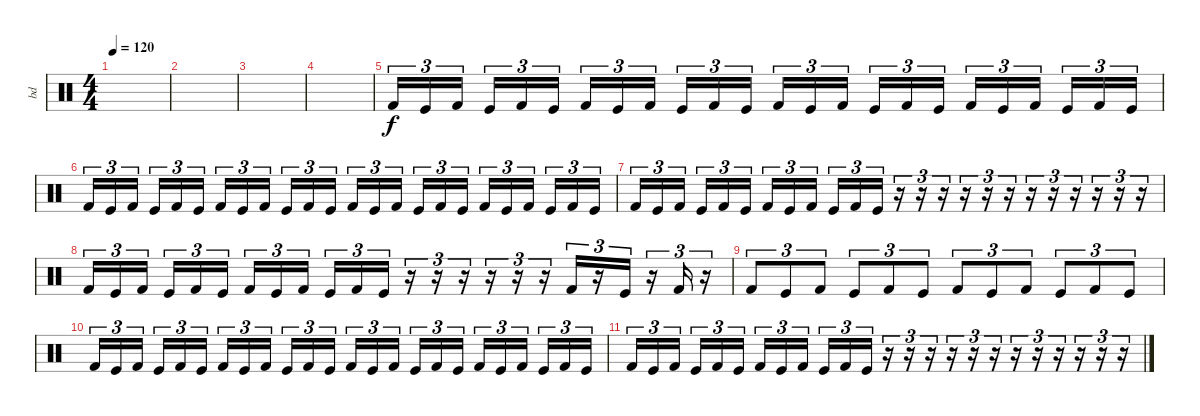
\track ("bd" "bd") {instrument percussion}
\staff
\articulation defaults
\ts (4 4)
\tempo 120
\clef neutral
\ks c
|
|
|
|
"Kick (hit) 2".16{tu (3 2)} "Kick (hit)".16{tu (3 2)} "Kick (hit) 2".16{tu (3 2) beam splitsecondary} "Kick (hit)".16{tu (3 2)} "Kick (hit) 2".16{tu (3 2)} "Kick (hit)".16{tu (3 2)} "Kick (hit) 2".16{tu (3 2)} "Kick (hit)".16{tu (3 2)} "Kick (hit) 2".16{tu (3 2) beam splitsecondary} "Kick (hit)".16{tu (3 2)} "Kick (hit) 2".16{tu (3 2)} "Kick (hit)".16{tu (3 2)} "Kick (hit) 2".16{tu (3 2)} "Kick (hit)".16{tu (3 2)} "Kick (hit) 2".16{tu (3 2) beam splitsecondary} "Kick (hit)".16{tu (3 2)} "Kick (hit) 2".16{tu (3 2)} "Kick (hit)".16{tu (3 2)} "Kick (hit) 2".16{tu (3 2)} "Kick (hit)".16{tu (3 2)} "Kick (hit) 2".16{tu (3 2) beam splitsecondary} "Kick (hit)".16{tu (3 2)} "Kick (hit) 2".16{tu (3 2)} "Kick (hit)".16{tu (3 2)} |
"Kick (hit) 2".16{tu (3 2)} "Kick (hit)".16{tu (3 2)} "Kick (hit) 2".16{tu (3 2) beam splitsecondary} "Kick (hit)".16{tu (3 2)} "Kick (hit) 2".16{tu (3 2)} "Kick (hit)".16{tu (3 2)} "Kick (hit) 2".16{tu (3 2)} "Kick (hit)".16{tu (3 2)} "Kick (hit) 2".16{tu (3 2) beam splitsecondary} "Kick (hit)".16{tu (3 2)} "Kick (hit) 2".16{tu (3 2)} "Kick (hit)".16{tu (3 2)} "Kick (hit) 2".16{tu (3 2)} "Kick (hit)".16{tu (3 2)} "Kick (hit) 2".16{tu (3 2) beam splitsecondary} "Kick (hit)".16{tu (3 2)} "Kick (hit) 2".16{tu (3 2)} "Kick (hit)".16{tu (3 2)} "Kick (hit) 2".16{tu (3 2)} "Kick (hit)".16{tu (3 2)} "Kick (hit) 2".16{tu (3 2) beam splitsecondary} "Kick (hit)".16{tu (3 2)} "Kick (hit) 2".16{tu (3 2)} "Kick (hit)".16{tu (3 2)} |
"Kick (hit) 2".16{tu (3 2)} "Kick (hit)".16{tu (3 2)} "Kick (hit) 2".16{tu (3 2) beam splitsecondary} "Kick (hit)".16{tu (3 2)} "Kick (hit) 2".16{tu (3 2)} "Kick (hit)".16{tu (3 2)} "Kick (hit) 2".16{tu (3 2)} "Kick (hit)".16{tu (3 2)} "Kick (hit) 2".16{tu (3 2) beam splitsecondary} "Kick (hit)".16{tu (3 2)} "Kick (hit) 2".16{tu (3 2)} "Kick (hit)".16{tu (3 2)} r.16{tu (3 2)} r.16{tu (3 2)} r.16{tu (3 2)} r.16{tu (3 2)} r.16{tu (3 2)} r.16{tu (3 2)} r.16{tu (3 2)} r.16{tu (3 2)} r.16{tu (3 2)} r.16{tu (3 2)} r.16{tu (3 2)} r.16{tu (3 2)} |
"Kick (hit) 2".16{tu (3 2)} "Kick (hit)".16{tu (3 2)} "Kick (hit) 2".16{tu (3 2) beam splitsecondary} "Kick (hit)".16{tu (3 2)} "Kick (hit) 2".16{tu (3 2)} "Kick (hit)".16{tu (3 2)} "Kick (hit) 2".16{tu (3 2)} "Kick (hit)".16{tu (3 2)} "Kick (hit) 2".16{tu (3 2) beam splitsecondary} "Kick (hit)".16{tu (3 2)} "Kick (hit) 2".16{tu (3 2)} "Kick (hit)".16{tu (3 2)} r.16{tu (3 2)} r.16{tu (3 2)} r.16{tu (3 2)} r.16{tu (3 2)} r.16{tu (3 2)} r.16{tu (3 2)} "Kick (hit) 2".16{tu (3 2)} r.16{tu (3 2)} "Kick (hit)".16{tu (3 2)} r.16{tu (3 2)} "Kick (hit) 2".16{tu (3 2)} r.16{tu (3 2)} |
"Kick (hit) 2".8{tu (3 2)} "Kick (hit)".8{tu (3 2)} "Kick (hit) 2".8{tu (3 2)} "Kick (hit)".8{tu (3 2)} "Kick (hit) 2".8{tu (3 2)} "Kick (hit)".8{tu (3 2)} "Kick (hit) 2".8{tu (3 2)} "Kick (hit)".8{tu (3 2)} "Kick (hit) 2".8{tu (3 2)} "Kick (hit)".8{tu (3 2)} "Kick (hit) 2".8{tu (3 2)} "Kick (hit)".8{tu (3 2)} |
"Kick (hit) 2".16{tu (3 2)} "Kick (hit)".16{tu (3 2)} "Kick (hit) 2".16{tu (3 2) beam splitsecondary} "Kick (hit)".16{tu (3 2)} "Kick (hit) 2".16{tu (3 2)} "Kick (hit)".16{tu (3 2)} "Kick (hit) 2".16{tu (3 2)} "Kick (hit)".16{tu (3 2)} "Kick (hit) 2".16{tu (3 2) beam splitsecondary} "Kick (hit)".16{tu (3 2)} "Kick (hit) 2".16{tu (3 2)} "Kick (hit)".16{tu (3 2)} "Kick (hit) 2".16{tu (3 2)} "Kick (hit)".16{tu (3 2)} "Kick (hit) 2".16{tu (3 2) beam splitsecondary} "Kick (hit)".16{tu (3 2)} "Kick (hit) 2".16{tu (3 2)} "Kick (hit)".16{tu (3 2)} "Kick (hit) 2".16{tu (3 2)} "Kick (hit)".16{tu (3 2)} "Kick (hit) 2".16{tu (3 2) beam splitsecondary} "Kick (hit)".16{tu (3 2)} "Kick (hit) 2".16{tu (3 2)} "Kick (hit)".16{tu (3 2)} |
"Kick (hit) 2".16{tu (3 2)} "Kick (hit)".16{tu (3 2)} "Kick (hit) 2".16{tu (3 2) beam splitsecondary} "Kick (hit)".16{tu (3 2)} "Kick (hit) 2".16{tu (3 2)} "Kick (hit)".16{tu (3 2)} "Kick (hit) 2".16{tu (3 2)} "Kick (hit)".16{tu (3 2)} "Kick (hit) 2".16{tu (3 2) beam splitsecondary} "Kick (hit)".16{tu (3 2)} "Kick (hit) 2".16{tu (3 2)} "Kick (hit)".16{tu (3 2)} r.16{tu (3 2)} r.16{tu (3 2)} r.16{tu (3 2)} r.16{tu (3 2)} r.16{tu (3 2)} r.16{tu (3 2)} r.16{tu (3 2)} r.16{tu (3 2)} r.16{tu (3 2)} r.16{tu (3 2)} r.16{tu (3 2)} r.16{tu (3 2)}
